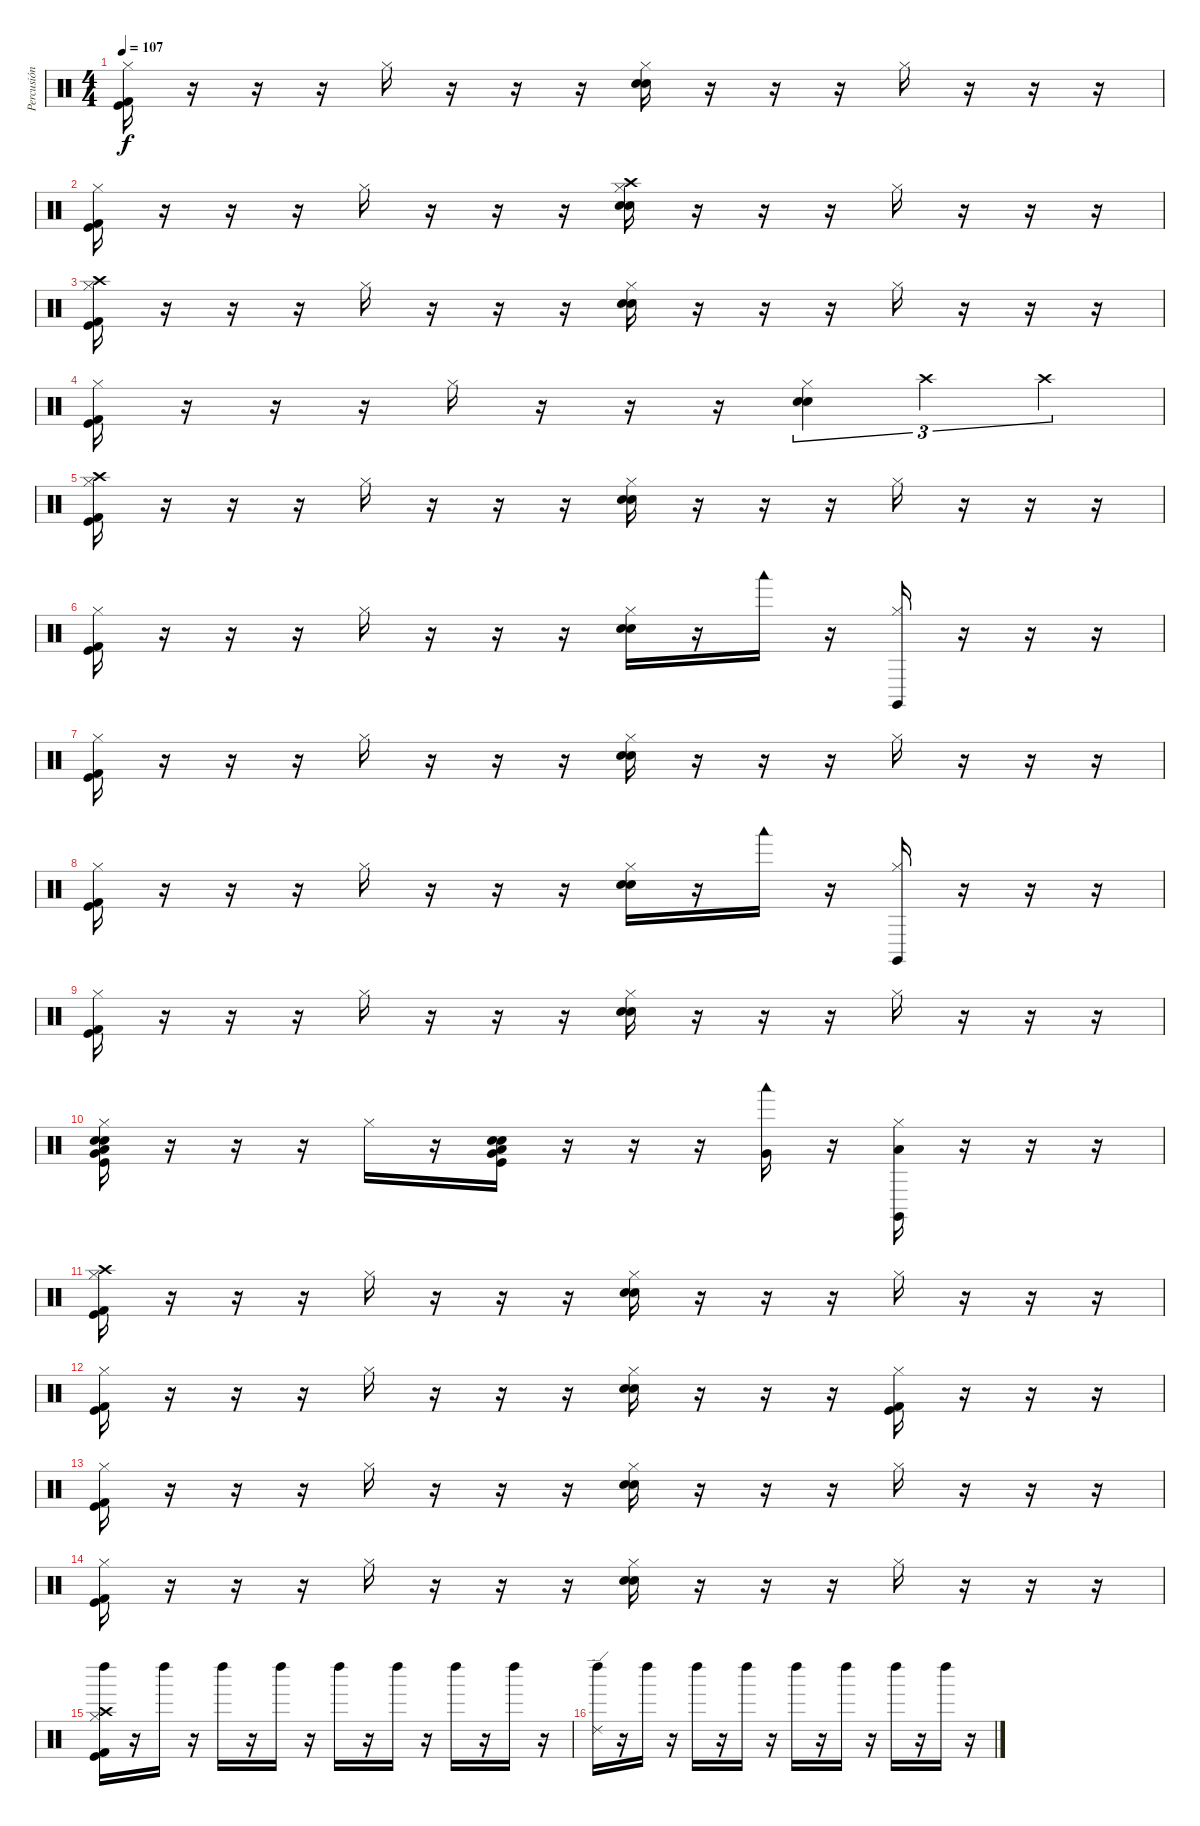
\track ("Percusión" "Percusión") {instrument percussion}
\staff {score}
\articulation defaults
\ts (4 4)
\tempo 107
\clef neutral
\ks c
("Hi-Hat (closed)" "Kick (hit) 2" "Kick (hit)").16{dy f} r.16 r.16 r.16 "Hi-Hat (closed)".16 r.16 r.16 r.16 ("Hi-Hat (closed)" "Snare (hit) 2" "Electric Snare (hit)").16 r.16 r.16 r.16 "Hi-Hat (closed)".16 r.16 r.16 r.16 |
("Hi-Hat (closed)" "Kick (hit) 2" "Kick (hit)").16 r.16 r.16 r.16 "Hi-Hat (closed)".16 r.16 r.16 r.16 ("Hi-Hat (closed)" "Crash high (hit)" "Snare (hit) 2" "Electric Snare (hit)").16 r.16 r.16 r.16 "Hi-Hat (closed)".16 r.16 r.16 r.16 |
("Hi-Hat (closed)" "Crash high (hit)" "Kick (hit) 2" "Kick (hit)").16 r.16 r.16 r.16 "Hi-Hat (closed)".16 r.16 r.16 r.16 ("Hi-Hat (closed)" "Snare (hit) 2" "Electric Snare (hit)").16 r.16 r.16 r.16 "Hi-Hat (closed)".16 r.16 r.16 r.16 |
("Hi-Hat (closed)" "Kick (hit) 2" "Kick (hit)").16 r.16 r.16 r.16 "Hi-Hat (closed)".16 r.16 r.16 r.16 ("Hi-Hat (closed)" "Snare (hit) 2" "Electric Snare (hit)").4{tu (3 2) volume 16} "Crash high (hit)".4{tu (3 2) volume 10} "Crash high (hit)".4{tu (3 2)} |
("Hi-Hat (closed)" "Crash high (hit)" "Kick (hit) 2" "Kick (hit)").16 r.16 r.16 r.16 "Hi-Hat (closed)".16 r.16 r.16 r.16 ("Hi-Hat (closed)" "Snare (hit) 2" "Electric Snare (hit)").16 r.16 r.16 r.16 "Hi-Hat (closed)".16 r.16 r.16 r.16 |
("Hi-Hat (closed)" "Kick (hit) 2" "Kick (hit)").16 r.16 r.16 r.16 "Hi-Hat (closed)".16 r.16 r.16 r.16 ("Hi-Hat (closed)" "Snare (hit) 2" "Electric Snare (hit)").16 r.16 "Woodblock low (hit)".16 r.16 ("Hi-Hat (closed)" "Claves (hit)").16 r.16 r.16 r.16 |
("Hi-Hat (closed)" "Kick (hit) 2" "Kick (hit)").16 r.16 r.16 r.16 "Hi-Hat (closed)".16 r.16 r.16 r.16 ("Hi-Hat (closed)" "Snare (hit) 2" "Electric Snare (hit)").16 r.16 r.16 r.16 "Hi-Hat (closed)".16 r.16 r.16 r.16 |
("Hi-Hat (closed)" "Kick (hit) 2" "Kick (hit)").16 r.16 r.16 r.16 "Hi-Hat (closed)".16 r.16 r.16 r.16 ("Hi-Hat (closed)" "Snare (hit) 2" "Electric Snare (hit)").16 r.16 "Woodblock low (hit)".16 r.16 ("Hi-Hat (closed)" "Claves (hit)").16 r.16 r.16 r.16 |
("Hi-Hat (closed)" "Kick (hit) 2" "Kick (hit)").16 r.16 r.16 r.16 "Hi-Hat (closed)".16 r.16 r.16 r.16 ("Hi-Hat (closed)" "Snare (hit) 2" "Electric Snare (hit)").16 r.16 r.16 r.16 "Hi-Hat (closed)".16 r.16 r.16 r.16 |
("Hi-Hat (closed)" "Electric Snare (hit)" "Snare (hit) 2" "Kick (hit)" "Low Floor Tom (hit)" "Very Low Tom (hit)").16 r.16 r.16 r.16 "Hi-Hat (closed)".16 r.16 ("Electric Snare (hit)" "Snare (hit) 2" "Kick (hit)" "Low Floor Tom (hit)" "Very Low Tom (hit)").16 r.16 r.16 r.16 ("Woodblock low (hit)" "Very Low Tom (hit)").16 r.16 ("Hi-Hat (closed)" "Claves (hit)" "Low Floor Tom (hit)").16 r.16 r.16 r.16 |
("Hi-Hat (closed)" "Crash high (hit)" "Kick (hit) 2" "Kick (hit)").16 r.16 r.16 r.16 "Hi-Hat (closed)".16 r.16 r.16 r.16 ("Hi-Hat (closed)" "Snare (hit) 2" "Electric Snare (hit)").16 r.16 r.16 r.16 "Hi-Hat (closed)".16 r.16 r.16 r.16 |
("Hi-Hat (closed)" "Kick (hit) 2" "Kick (hit)").16 r.16 r.16 r.16 "Hi-Hat (closed)".16 r.16 r.16 r.16 ("Hi-Hat (closed)" "Snare (hit) 2" "Electric Snare (hit)").16 r.16 r.16 r.16 ("Hi-Hat (closed)" "Kick (hit) 2" "Kick (hit)").16 r.16 r.16 r.16 |
("Hi-Hat (closed)" "Kick (hit) 2" "Kick (hit)").16 r.16 r.16 r.16 "Hi-Hat (closed)".16 r.16 r.16 r.16 ("Hi-Hat (closed)" "Snare (hit) 2" "Electric Snare (hit)").16 r.16 r.16 r.16 "Hi-Hat (closed)".16 r.16 r.16 r.16 |
("Hi-Hat (closed)" "Kick (hit) 2" "Kick (hit)").16 r.16 r.16 r.16 "Hi-Hat (closed)".16 r.16 r.16 r.16 ("Hi-Hat (closed)" "Snare (hit) 2" "Electric Snare (hit)").16 r.16 r.16 r.16 "Hi-Hat (closed)".16 r.16 r.16 r.16 |
("Hi-Hat (closed)" "Crash high (hit)" "Left Maraca (hit)" "Kick (hit)" "Kick (hit) 2").16 r.16 "Left Maraca (hit)".16 r.16 "Left Maraca (hit)".16 r.16 "Left Maraca (hit)".16 r.16 "Left Maraca (hit)".16 r.16 "Left Maraca (hit)".16 r.16 "Left Maraca (hit)".16 r.16 "Left Maraca (hit)".16 r.16 |
("Ride (edge) 2" "Left Maraca (hit)").16 r.16 "Left Maraca (hit)".16 r.16 "Left Maraca (hit)".16 r.16 "Left Maraca (hit)".16 r.16 "Left Maraca (hit)".16 r.16 "Left Maraca (hit)".16 r.16 "Left Maraca (hit)".16 r.16 "Left Maraca (hit)".16 r.16
